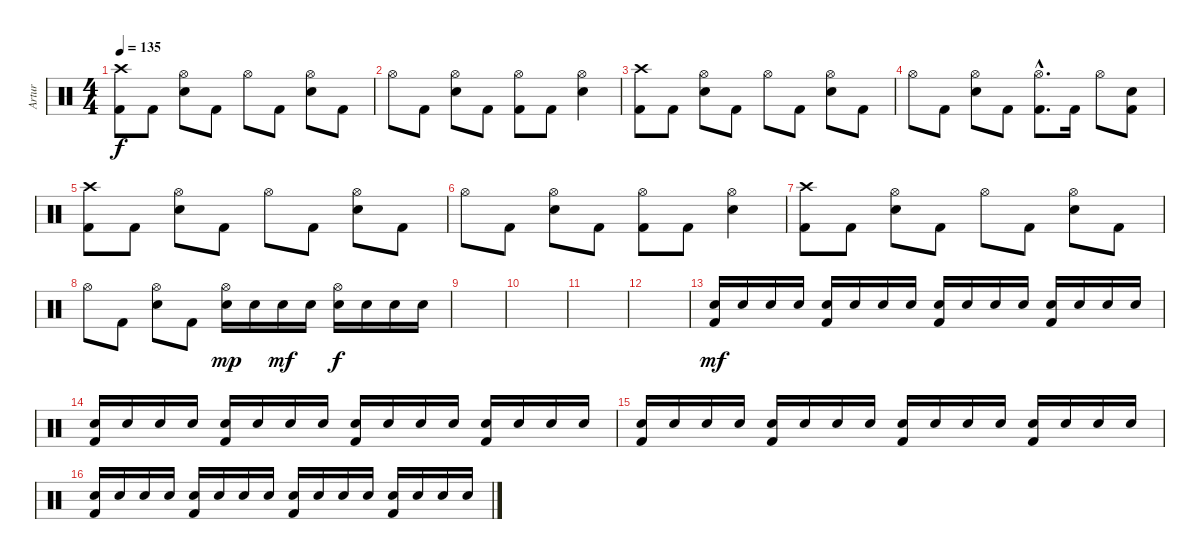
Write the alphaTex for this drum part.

\track ("Artur" "Artur") {instrument percussion}
\staff {score}
\articulation defaults
\ts (4 4)
\tempo 135
\clef neutral
\ks c
("Crash high (hit)" "Kick (hit) 2").8{dy f} "Kick (hit) 2".8 ("Hi-Hat (open)" "Electric Snare (hit)").8 "Kick (hit) 2".8 "Hi-Hat (open)".8 "Kick (hit) 2".8 ("Hi-Hat (open)" "Electric Snare (hit)").8 "Kick (hit) 2".8 |
"Hi-Hat (open)".8 "Kick (hit) 2".8 ("Hi-Hat (open)" "Electric Snare (hit)").8 "Kick (hit) 2".8 ("Hi-Hat (open)" "Kick (hit) 2").8 "Kick (hit) 2".8 ("Hi-Hat (open)" "Electric Snare (hit)").4 |
("Crash high (hit)" "Kick (hit) 2").8 "Kick (hit) 2".8 ("Hi-Hat (open)" "Electric Snare (hit)").8 "Kick (hit) 2".8 "Hi-Hat (open)".8 "Kick (hit) 2".8 ("Hi-Hat (open)" "Electric Snare (hit)").8 "Kick (hit) 2".8 |
"Hi-Hat (open)".8 "Kick (hit) 2".8 ("Hi-Hat (open)" "Electric Snare (hit)").8 "Kick (hit) 2".8 ("Hi-Hat (open)"{hac} "Kick (hit) 2"{hac}).8{d} "Kick (hit) 2".16 "Hi-Hat (open)".8 ("Electric Snare (hit)" "Kick (hit) 2").8 |
("Crash high (hit)" "Kick (hit) 2").8 "Kick (hit) 2".8 ("Hi-Hat (open)" "Electric Snare (hit)").8 "Kick (hit) 2".8 "Hi-Hat (open)".8 "Kick (hit) 2".8 ("Hi-Hat (open)" "Electric Snare (hit)").8 "Kick (hit) 2".8 |
"Hi-Hat (open)".8 "Kick (hit) 2".8 ("Hi-Hat (open)" "Electric Snare (hit)").8 "Kick (hit) 2".8 ("Hi-Hat (open)" "Kick (hit) 2").8 "Kick (hit) 2".8 ("Hi-Hat (open)" "Electric Snare (hit)").4 |
("Crash high (hit)" "Kick (hit) 2").8 "Kick (hit) 2".8 ("Hi-Hat (open)" "Electric Snare (hit)").8 "Kick (hit) 2".8 "Hi-Hat (open)".8 "Kick (hit) 2".8 ("Hi-Hat (open)" "Electric Snare (hit)").8 "Kick (hit) 2".8 |
"Hi-Hat (open)".8 "Kick (hit) 2".8 ("Hi-Hat (open)" "Electric Snare (hit)").8 "Kick (hit) 2".8 ("Hi-Hat (open)" "Electric Snare (hit)").16{dy mp} "Electric Snare (hit)".16 "Electric Snare (hit)".16{dy mf} "Electric Snare (hit)".16 ("Hi-Hat (open)" "Electric Snare (hit)").16{dy f} "Electric Snare (hit)".16 "Electric Snare (hit)".16 "Electric Snare (hit)".16 |
|
|
|
|
("Electric Snare (hit)" "Kick (hit) 2").16{dy mf} "Electric Snare (hit)".16 "Electric Snare (hit)".16 "Electric Snare (hit)".16 ("Electric Snare (hit)" "Kick (hit) 2").16 "Electric Snare (hit)".16 "Electric Snare (hit)".16 "Electric Snare (hit)".16 ("Electric Snare (hit)" "Kick (hit) 2").16 "Electric Snare (hit)".16 "Electric Snare (hit)".16 "Electric Snare (hit)".16 ("Electric Snare (hit)" "Kick (hit) 2").16 "Electric Snare (hit)".16 "Electric Snare (hit)".16 "Electric Snare (hit)".16 |
("Electric Snare (hit)" "Kick (hit) 2").16 "Electric Snare (hit)".16 "Electric Snare (hit)".16 "Electric Snare (hit)".16 ("Electric Snare (hit)" "Kick (hit) 2").16 "Electric Snare (hit)".16 "Electric Snare (hit)".16 "Electric Snare (hit)".16 ("Electric Snare (hit)" "Kick (hit) 2").16 "Electric Snare (hit)".16 "Electric Snare (hit)".16 "Electric Snare (hit)".16 ("Electric Snare (hit)" "Kick (hit) 2").16 "Electric Snare (hit)".16 "Electric Snare (hit)".16 "Electric Snare (hit)".16 |
("Electric Snare (hit)" "Kick (hit) 2").16 "Electric Snare (hit)".16 "Electric Snare (hit)".16 "Electric Snare (hit)".16 ("Electric Snare (hit)" "Kick (hit) 2").16 "Electric Snare (hit)".16 "Electric Snare (hit)".16 "Electric Snare (hit)".16 ("Electric Snare (hit)" "Kick (hit) 2").16 "Electric Snare (hit)".16 "Electric Snare (hit)".16 "Electric Snare (hit)".16 ("Electric Snare (hit)" "Kick (hit) 2").16 "Electric Snare (hit)".16 "Electric Snare (hit)".16 "Electric Snare (hit)".16 |
("Electric Snare (hit)" "Kick (hit) 2").16 "Electric Snare (hit)".16 "Electric Snare (hit)".16 "Electric Snare (hit)".16 ("Electric Snare (hit)" "Kick (hit) 2").16 "Electric Snare (hit)".16 "Electric Snare (hit)".16 "Electric Snare (hit)".16 ("Electric Snare (hit)" "Kick (hit) 2").16 "Electric Snare (hit)".16 "Electric Snare (hit)".16 "Electric Snare (hit)".16 ("Electric Snare (hit)" "Kick (hit) 2").16 "Electric Snare (hit)".16 "Electric Snare (hit)".16 "Electric Snare (hit)".16
